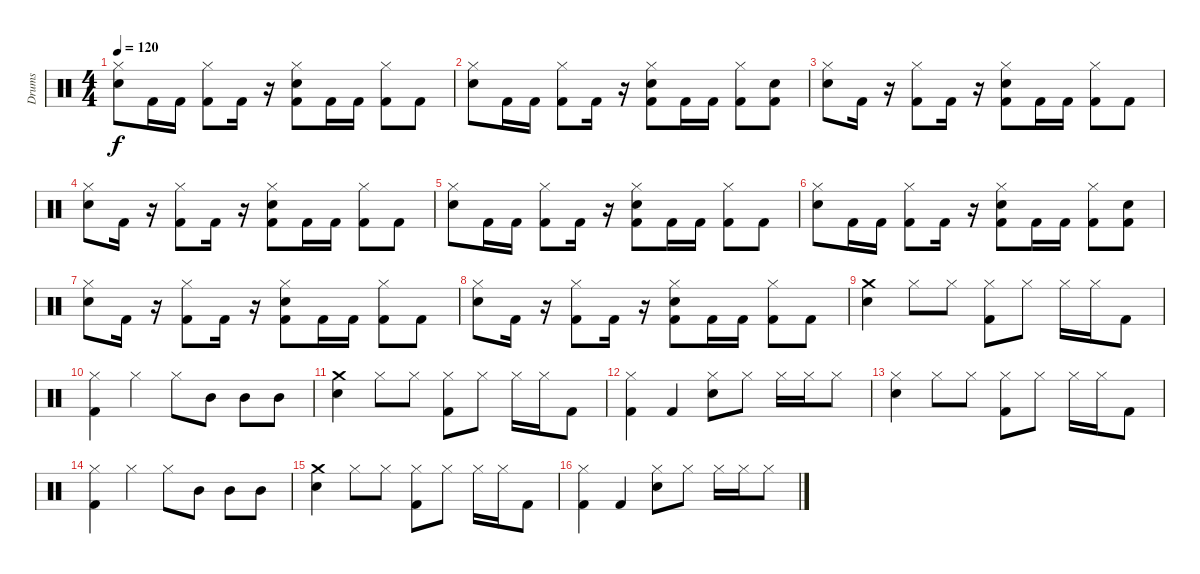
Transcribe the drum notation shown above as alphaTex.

\track ("Drums" "Drums") {instrument percussion}
\staff {score}
\articulation defaults
\ts (4 4)
\tempo 120
\clef neutral
\ks c
("Hi-Hat (closed)" "Snare (hit) 2").8{dy f} "Kick (hit) 2".16 "Kick (hit) 2".16 ("Hi-Hat (closed)" "Kick (hit) 2").8 "Kick (hit) 2".16 r.16 ("Hi-Hat (closed)" "Snare (hit) 2" "Kick (hit) 2").8 "Kick (hit) 2".16 "Kick (hit) 2".16 ("Hi-Hat (closed)" "Kick (hit) 2").8 "Kick (hit) 2".8 |
("Hi-Hat (closed)" "Snare (hit) 2").8 "Kick (hit) 2".16 "Kick (hit) 2".16 ("Hi-Hat (closed)" "Kick (hit) 2").8 "Kick (hit) 2".16 r.16 ("Hi-Hat (closed)" "Snare (hit) 2" "Kick (hit) 2").8 "Kick (hit) 2".16 "Kick (hit) 2".16 ("Hi-Hat (closed)" "Kick (hit) 2").8 ("Snare (hit) 2" "Kick (hit) 2").8 |
("Hi-Hat (closed)" "Snare (hit) 2").8 "Kick (hit) 2".16 r.16 ("Hi-Hat (closed)" "Kick (hit) 2").8 "Kick (hit) 2".16 r.16 ("Hi-Hat (closed)" "Snare (hit) 2" "Kick (hit) 2").8 "Kick (hit) 2".16 "Kick (hit) 2".16 ("Hi-Hat (closed)" "Kick (hit) 2").8 "Kick (hit) 2".8 |
("Hi-Hat (closed)" "Snare (hit) 2").8 "Kick (hit) 2".16 r.16 ("Hi-Hat (closed)" "Kick (hit) 2").8 "Kick (hit) 2".16 r.16 ("Hi-Hat (closed)" "Snare (hit) 2" "Kick (hit) 2").8 "Kick (hit) 2".16 "Kick (hit) 2".16 ("Hi-Hat (closed)" "Kick (hit) 2").8 "Kick (hit) 2".8 |
("Hi-Hat (closed)" "Snare (hit) 2").8 "Kick (hit) 2".16 "Kick (hit) 2".16 ("Hi-Hat (closed)" "Kick (hit) 2").8 "Kick (hit) 2".16 r.16 ("Hi-Hat (closed)" "Snare (hit) 2" "Kick (hit) 2").8 "Kick (hit) 2".16 "Kick (hit) 2".16 ("Hi-Hat (closed)" "Kick (hit) 2").8 "Kick (hit) 2".8 |
("Hi-Hat (closed)" "Snare (hit) 2").8 "Kick (hit) 2".16 "Kick (hit) 2".16 ("Hi-Hat (closed)" "Kick (hit) 2").8 "Kick (hit) 2".16 r.16 ("Hi-Hat (closed)" "Snare (hit) 2" "Kick (hit) 2").8 "Kick (hit) 2".16 "Kick (hit) 2".16 ("Hi-Hat (closed)" "Kick (hit) 2").8 ("Snare (hit) 2" "Kick (hit) 2").8 |
("Hi-Hat (closed)" "Snare (hit) 2").8 "Kick (hit) 2".16 r.16 ("Hi-Hat (closed)" "Kick (hit) 2").8 "Kick (hit) 2".16 r.16 ("Hi-Hat (closed)" "Snare (hit) 2" "Kick (hit) 2").8 "Kick (hit) 2".16 "Kick (hit) 2".16 ("Hi-Hat (closed)" "Kick (hit) 2").8 "Kick (hit) 2".8 |
("Hi-Hat (closed)" "Snare (hit) 2").8 "Kick (hit) 2".16 r.16 ("Hi-Hat (closed)" "Kick (hit) 2").8 "Kick (hit) 2".16 r.16 ("Hi-Hat (closed)" "Snare (hit) 2" "Kick (hit) 2").8 "Kick (hit) 2".16 "Kick (hit) 2".16 ("Hi-Hat (closed)" "Kick (hit) 2").8 "Kick (hit) 2".8 |
("Crash medium (hit)" "Snare (hit) 2").4 "Hi-Hat (closed)".8 "Hi-Hat (closed)".8 ("Hi-Hat (closed)" "Kick (hit) 2").8 "Hi-Hat (closed)".8 "Hi-Hat (closed)".16 "Hi-Hat (closed)".16 "Kick (hit) 2".8 |
("Hi-Hat (closed)" "Kick (hit) 2").4 "Hi-Hat (closed)".4 "Hi-Hat (closed)".8 "Mid Tom (hit)".8 "Mid Tom (hit)".8 "Mid Tom (hit)".8 |
("Crash medium (hit)" "Snare (hit) 2").4 "Hi-Hat (closed)".8 "Hi-Hat (closed)".8 ("Hi-Hat (closed)" "Kick (hit) 2").8 "Hi-Hat (closed)".8 "Hi-Hat (closed)".16 "Hi-Hat (closed)".16 "Kick (hit) 2".8 |
("Hi-Hat (closed)" "Kick (hit) 2").4 "Kick (hit) 2".4 ("Hi-Hat (closed)" "Snare (hit) 2").8 "Hi-Hat (closed)".8 "Hi-Hat (closed)".16 "Hi-Hat (closed)".16 "Hi-Hat (closed)".8 |
("Hi-Hat (closed)" "Snare (hit) 2").4 "Hi-Hat (closed)".8 "Hi-Hat (closed)".8 ("Hi-Hat (closed)" "Kick (hit) 2").8 "Hi-Hat (closed)".8 "Hi-Hat (closed)".16 "Hi-Hat (closed)".16 "Kick (hit) 2".8 |
("Hi-Hat (closed)" "Kick (hit) 2").4 "Hi-Hat (closed)".4 "Hi-Hat (closed)".8 "Mid Tom (hit)".8 "Mid Tom (hit)".8 "Mid Tom (hit)".8 |
("Crash medium (hit)" "Snare (hit) 2").4 "Hi-Hat (closed)".8 "Hi-Hat (closed)".8 ("Hi-Hat (closed)" "Kick (hit) 2").8 "Hi-Hat (closed)".8 "Hi-Hat (closed)".16 "Hi-Hat (closed)".16 "Kick (hit) 2".8 |
("Hi-Hat (closed)" "Kick (hit) 2").4 "Kick (hit) 2".4 ("Hi-Hat (closed)" "Snare (hit) 2").8 "Hi-Hat (closed)".8 "Hi-Hat (closed)".16 "Hi-Hat (closed)".16 "Hi-Hat (closed)".8
